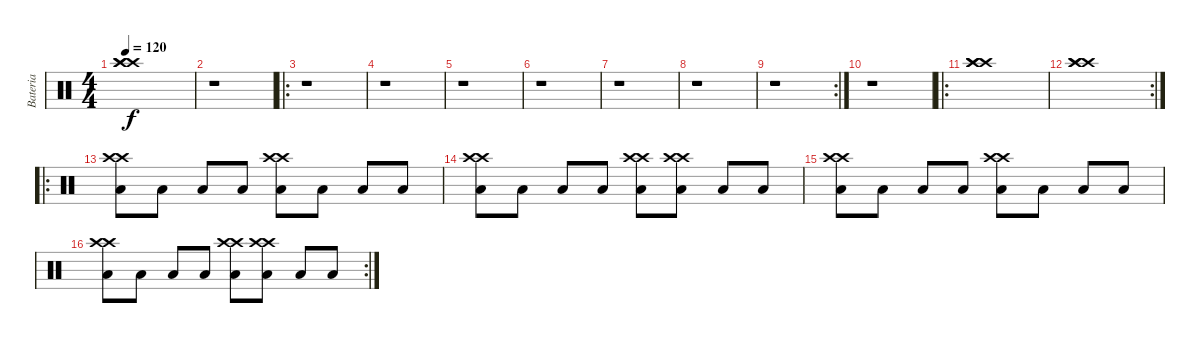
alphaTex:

\track ("Bateria" "Bateria") {instrument percussion}
\staff {score}
\articulation defaults
\ts (4 4)
\tempo 120
\clef neutral
\ks c
("Crash high (hit)" "Crash high (hit)" "Crash high (hit)").1{dy f} |
r.1 |
\ro
r.1 |
r.1 |
r.1 |
r.1 |
r.1 |
r.1 |
\rc 2
r.1 |
r.1 |
\ro
("Crash high (hit)" "Crash high (hit)" "Crash high (hit)").1 |
\rc 2
("Crash high (hit)" "Crash high (hit)" "Crash high (hit)").1 |
\ro
("Low Tom (hit)" "Crash high (hit)" "Crash high (hit)").8 "Low Tom (hit)".8 "Low Tom (hit)".8 "Low Tom (hit)".8 ("Low Tom (hit)" "Crash high (hit)" "Crash high (hit)").8 "Low Tom (hit)".8 "Low Tom (hit)".8 "Low Tom (hit)".8 |
("Low Tom (hit)" "Crash high (hit)" "Crash high (hit)").8 "Low Tom (hit)".8 "Low Tom (hit)".8 "Low Tom (hit)".8 ("Low Tom (hit)" "Crash high (hit)" "Crash high (hit)").8 ("Low Tom (hit)" "Crash high (hit)" "Crash high (hit)").8 "Low Tom (hit)".8 "Low Tom (hit)".8 |
("Low Tom (hit)" "Crash high (hit)" "Crash high (hit)").8 "Low Tom (hit)".8 "Low Tom (hit)".8 "Low Tom (hit)".8 ("Low Tom (hit)" "Crash high (hit)" "Crash high (hit)").8 "Low Tom (hit)".8 "Low Tom (hit)".8 "Low Tom (hit)".8 |
\rc 2
("Low Tom (hit)" "Crash high (hit)" "Crash high (hit)").8 "Low Tom (hit)".8 "Low Tom (hit)".8 "Low Tom (hit)".8 ("Low Tom (hit)" "Crash high (hit)" "Crash high (hit)").8 ("Low Tom (hit)" "Crash high (hit)" "Crash high (hit)").8 "Low Tom (hit)".8 "Low Tom (hit)".8
